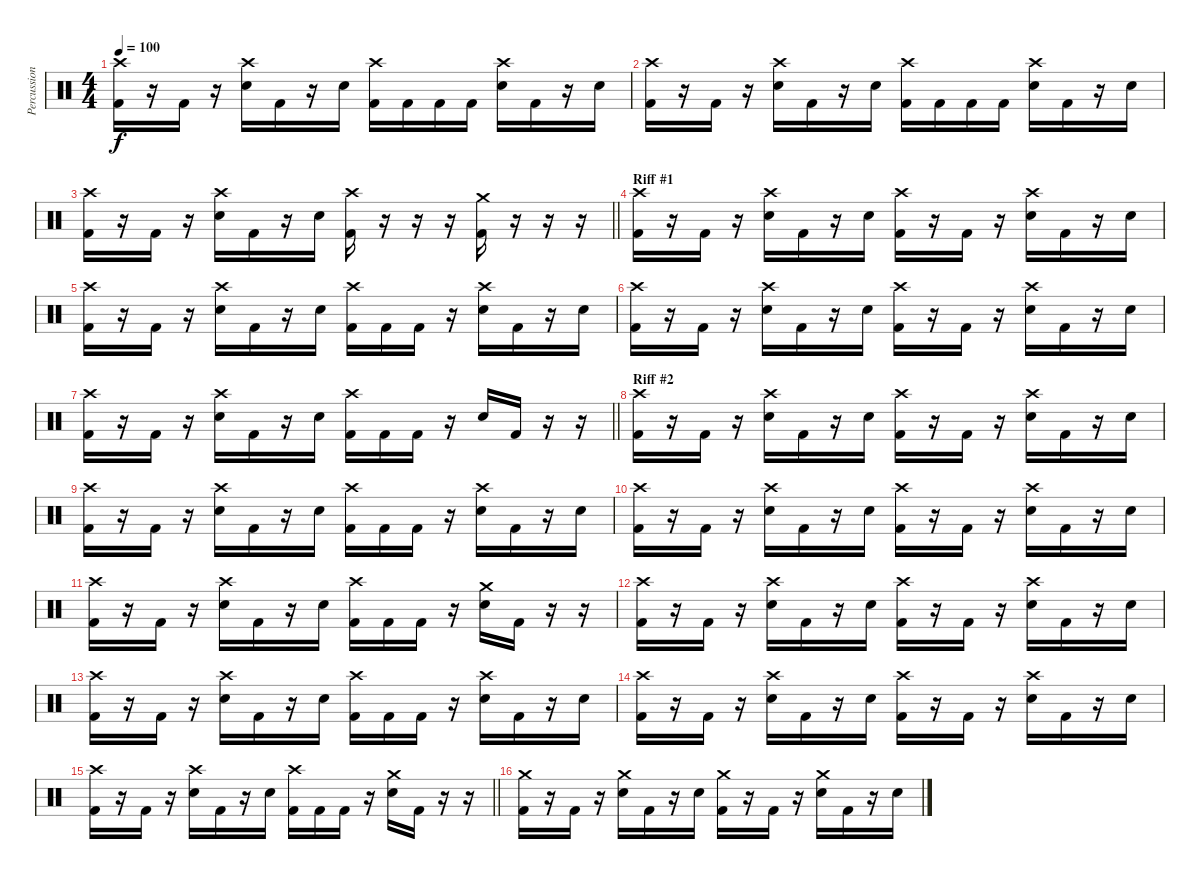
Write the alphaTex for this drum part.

\track ("Percussion" "Percussion") {instrument percussion}
\staff {score}
\articulation defaults
\ts (4 4)
\tempo 100
\clef neutral
\ks c
("Crash high (hit)" "Kick (hit) 2").16{dy f} r.16 "Kick (hit) 2".16 r.16 ("Crash high (hit)" "Electric Snare (hit)").16 "Kick (hit) 2".16 r.16 "Electric Snare (hit)".16 ("Crash high (hit)" "Kick (hit) 2").16 "Kick (hit) 2".16 "Kick (hit) 2".16 "Kick (hit) 2".16 ("Crash high (hit)" "Electric Snare (hit)").16 "Kick (hit) 2".16 r.16 "Electric Snare (hit)".16 |
("Crash high (hit)" "Kick (hit) 2").16 r.16 "Kick (hit) 2".16 r.16 ("Crash high (hit)" "Electric Snare (hit)").16 "Kick (hit) 2".16 r.16 "Electric Snare (hit)".16 ("Crash high (hit)" "Kick (hit) 2").16 "Kick (hit) 2".16 "Kick (hit) 2".16 "Kick (hit) 2".16 ("Crash high (hit)" "Electric Snare (hit)").16 "Kick (hit) 2".16 r.16 "Electric Snare (hit)".16 |
\barLineRight lightlight
("Crash high (hit)" "Kick (hit) 2").16 r.16 "Kick (hit) 2".16 r.16 ("Crash high (hit)" "Electric Snare (hit)").16 "Kick (hit) 2".16 r.16 "Electric Snare (hit)".16 ("Crash high (hit)" "Kick (hit) 2").16 r.16 r.16 r.16 ("Crash medium (hit)" "Kick (hit) 2").16 r.16 r.16 r.16 |
\section ("" "Riff #1")
("Crash high (hit)" "Kick (hit) 2").16 r.16 "Kick (hit) 2".16 r.16 ("Crash high (hit)" "Electric Snare (hit)").16 "Kick (hit) 2".16 r.16 "Electric Snare (hit)".16 ("Crash high (hit)" "Kick (hit) 2").16 r.16 "Kick (hit) 2".16 r.16 ("Crash high (hit)" "Electric Snare (hit)").16 "Kick (hit) 2".16 r.16 "Electric Snare (hit)".16 |
("Crash high (hit)" "Kick (hit) 2").16 r.16 "Kick (hit) 2".16 r.16 ("Crash high (hit)" "Electric Snare (hit)").16 "Kick (hit) 2".16 r.16 "Electric Snare (hit)".16 ("Crash high (hit)" "Kick (hit) 2").16 "Kick (hit) 2".16 "Kick (hit) 2".16 r.16 ("Crash high (hit)" "Electric Snare (hit)").16 "Kick (hit) 2".16 r.16 "Electric Snare (hit)".16 |
("Crash high (hit)" "Kick (hit) 2").16 r.16 "Kick (hit) 2".16 r.16 ("Crash high (hit)" "Electric Snare (hit)").16 "Kick (hit) 2".16 r.16 "Electric Snare (hit)".16 ("Crash high (hit)" "Kick (hit) 2").16 r.16 "Kick (hit) 2".16 r.16 ("Crash high (hit)" "Electric Snare (hit)").16 "Kick (hit) 2".16 r.16 "Electric Snare (hit)".16 |
\barLineRight lightlight
("Crash high (hit)" "Kick (hit) 2").16 r.16 "Kick (hit) 2".16 r.16 ("Crash high (hit)" "Electric Snare (hit)").16 "Kick (hit) 2".16 r.16 "Electric Snare (hit)".16 ("Crash high (hit)" "Kick (hit) 2").16 "Kick (hit) 2".16 "Kick (hit) 2".16 r.16 "Electric Snare (hit)".16 "Kick (hit) 2".16 r.16 r.16 |
\section ("" "Riff #2")
("Crash high (hit)" "Kick (hit) 2").16 r.16 "Kick (hit) 2".16 r.16 ("Crash high (hit)" "Electric Snare (hit)").16 "Kick (hit) 2".16 r.16 "Electric Snare (hit)".16 ("Crash high (hit)" "Kick (hit) 2").16 r.16 "Kick (hit) 2".16 r.16 ("Crash high (hit)" "Electric Snare (hit)").16 "Kick (hit) 2".16 r.16 "Electric Snare (hit)".16 |
("Crash high (hit)" "Kick (hit) 2").16 r.16 "Kick (hit) 2".16 r.16 ("Crash high (hit)" "Electric Snare (hit)").16 "Kick (hit) 2".16 r.16 "Electric Snare (hit)".16 ("Crash high (hit)" "Kick (hit) 2").16 "Kick (hit) 2".16 "Kick (hit) 2".16 r.16 ("Crash high (hit)" "Electric Snare (hit)").16 "Kick (hit) 2".16 r.16 "Electric Snare (hit)".16 |
("Crash high (hit)" "Kick (hit) 2").16 r.16 "Kick (hit) 2".16 r.16 ("Crash high (hit)" "Electric Snare (hit)").16 "Kick (hit) 2".16 r.16 "Electric Snare (hit)".16 ("Crash high (hit)" "Kick (hit) 2").16 r.16 "Kick (hit) 2".16 r.16 ("Crash high (hit)" "Electric Snare (hit)").16 "Kick (hit) 2".16 r.16 "Electric Snare (hit)".16 |
("Crash high (hit)" "Kick (hit) 2").16 r.16 "Kick (hit) 2".16 r.16 ("Crash high (hit)" "Electric Snare (hit)").16 "Kick (hit) 2".16 r.16 "Electric Snare (hit)".16 ("Crash high (hit)" "Kick (hit) 2").16 "Kick (hit) 2".16 "Kick (hit) 2".16 r.16 ("Crash medium (hit)" "Electric Snare (hit)").16 "Kick (hit) 2".16 r.16 r.16 |
("Crash high (hit)" "Kick (hit) 2").16 r.16 "Kick (hit) 2".16 r.16 ("Crash high (hit)" "Electric Snare (hit)").16 "Kick (hit) 2".16 r.16 "Electric Snare (hit)".16 ("Crash high (hit)" "Kick (hit) 2").16 r.16 "Kick (hit) 2".16 r.16 ("Crash high (hit)" "Electric Snare (hit)").16 "Kick (hit) 2".16 r.16 "Electric Snare (hit)".16 |
("Crash high (hit)" "Kick (hit) 2").16 r.16 "Kick (hit) 2".16 r.16 ("Crash high (hit)" "Electric Snare (hit)").16 "Kick (hit) 2".16 r.16 "Electric Snare (hit)".16 ("Crash high (hit)" "Kick (hit) 2").16 "Kick (hit) 2".16 "Kick (hit) 2".16 r.16 ("Crash high (hit)" "Electric Snare (hit)").16 "Kick (hit) 2".16 r.16 "Electric Snare (hit)".16 |
("Crash high (hit)" "Kick (hit) 2").16 r.16 "Kick (hit) 2".16 r.16 ("Crash high (hit)" "Electric Snare (hit)").16 "Kick (hit) 2".16 r.16 "Electric Snare (hit)".16 ("Crash high (hit)" "Kick (hit) 2").16 r.16 "Kick (hit) 2".16 r.16 ("Crash high (hit)" "Electric Snare (hit)").16 "Kick (hit) 2".16 r.16 "Electric Snare (hit)".16 |
\barLineRight lightlight
("Crash high (hit)" "Kick (hit) 2").16 r.16 "Kick (hit) 2".16 r.16 ("Crash high (hit)" "Electric Snare (hit)").16 "Kick (hit) 2".16 r.16 "Electric Snare (hit)".16 ("Crash high (hit)" "Kick (hit) 2").16 "Kick (hit) 2".16 "Kick (hit) 2".16 r.16 ("Crash medium (hit)" "Electric Snare (hit)").16 "Kick (hit) 2".16 r.16 r.16 |
("Crash medium (hit)" "Kick (hit) 2").16 r.16 "Kick (hit) 2".16 r.16 ("Crash medium (hit)" "Electric Snare (hit)").16 "Kick (hit) 2".16 r.16 "Electric Snare (hit)".16 ("Crash medium (hit)" "Kick (hit) 2").16 r.16 "Kick (hit) 2".16 r.16 ("Crash medium (hit)" "Electric Snare (hit)").16 "Kick (hit) 2".16 r.16 "Electric Snare (hit)".16
